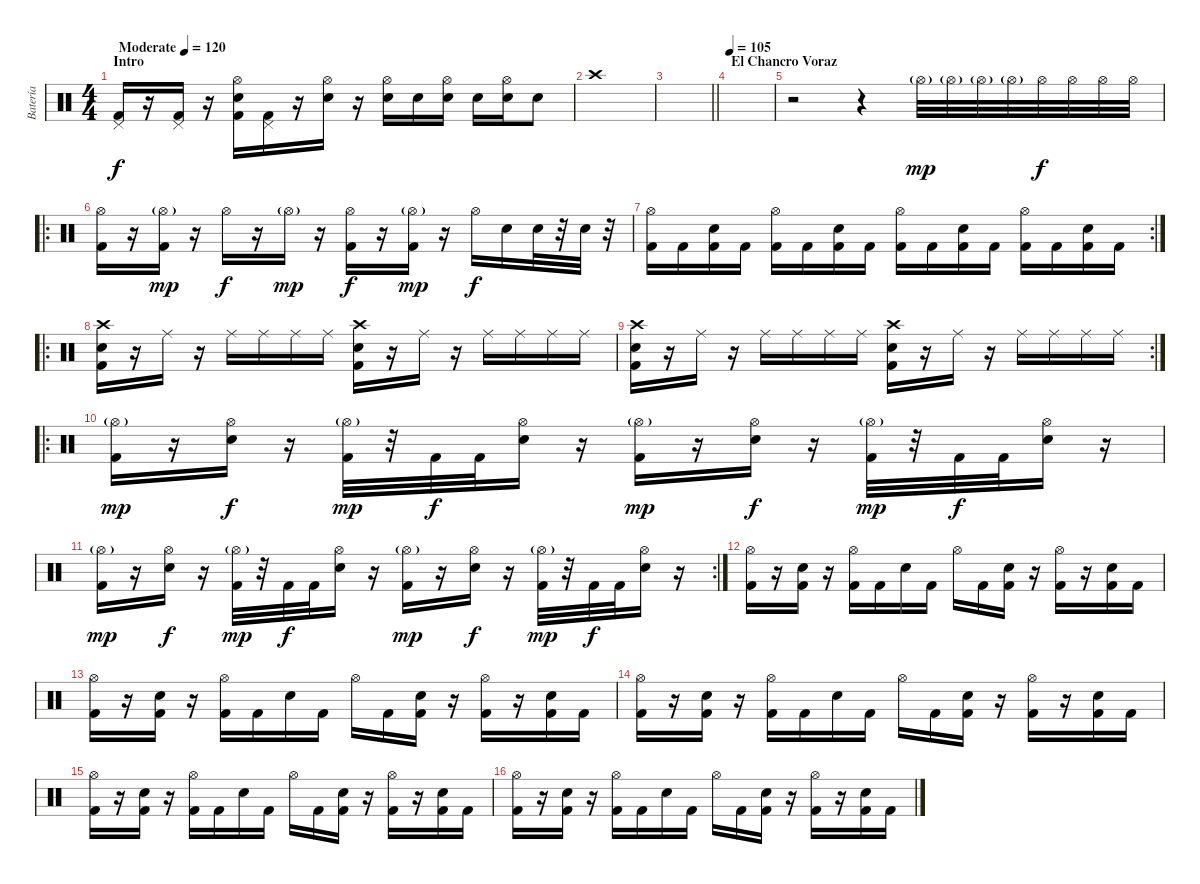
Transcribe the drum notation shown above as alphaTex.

\track ("Batería" "Batería") {instrument percussion}
\staff {score}
\articulation defaults
\ts (4 4)
\section ("" "Intro")
\tempo (120 "Moderate")
\clef neutral
\ks c
("Pedal Hi-Hat (hit)" "Kick (hit) 2").16{dy f} r.16 ("Pedal Hi-Hat (hit)" "Kick (hit) 2").16 r.16 ("Hi-Hat (open)" "Snare (hit) 2" "Kick (hit) 2").16 ("Pedal Hi-Hat (hit)" "Kick (hit) 2").16 r.16 ("Hi-Hat (open)" "Snare (hit) 2").16 r.16 ("Hi-Hat (open)" "Snare (hit) 2").16 "Snare (hit) 2".16 ("Hi-Hat (open)" "Snare (hit) 2").16 "Snare (hit) 2".16 ("Hi-Hat (open)" "Snare (hit) 2").16 "Snare (hit) 2".8 |
"Crash high (hit)".1 |
\barLineRight lightlight
|
\section ("" "El Chancro Voraz")
\tempo 105
|
r.2 r.4 "Hi-Hat (open)"{g}.32{dy mp} "Hi-Hat (open)"{g}.32 "Hi-Hat (open)"{g}.32 "Hi-Hat (open)"{g}.32 "Hi-Hat (open)".32{dy f} "Hi-Hat (open)".32 "Hi-Hat (open)".32 "Hi-Hat (open)".32 |
\ro
("Hi-Hat (open)" "Kick (hit) 2").16 r.16 ("Hi-Hat (open)"{g} "Kick (hit) 2").16{dy mp} r.16 "Hi-Hat (open)".16{dy f} r.16 "Hi-Hat (open)"{g}.16{dy mp} r.16 ("Hi-Hat (open)" "Kick (hit) 2").16{dy f} r.16 ("Hi-Hat (open)"{g} "Kick (hit) 2").16{dy mp} r.16 "Hi-Hat (open)".16{dy f} "Snare (hit) 2".16 "Snare (hit) 2".32 r.32 "Snare (hit) 2".32 r.32 |
\rc 2
("Hi-Hat (open)" "Kick (hit) 2").16 "Kick (hit) 2".16 ("Snare (hit) 2" "Kick (hit) 2").16 "Kick (hit) 2".16 ("Hi-Hat (open)" "Kick (hit) 2").16 "Kick (hit) 2".16 ("Snare (hit) 2" "Kick (hit) 2").16 "Kick (hit) 2".16 ("Hi-Hat (open)" "Kick (hit) 2").16 "Kick (hit) 2".16 ("Snare (hit) 2" "Kick (hit) 2").16 "Kick (hit) 2".16 ("Hi-Hat (open)" "Kick (hit) 2").16 "Kick (hit) 2".16 ("Snare (hit) 2" "Kick (hit) 2").16 "Kick (hit) 2".16 |
\ro
("Crash high (hit)" "Snare (hit) 2" "Kick (hit) 2").16 r.16 "Ride (middle)".16 r.16 "Ride (middle)".16 "Ride (middle)".16 "Ride (middle)".16 "Ride (middle)".16 ("Crash high (hit)" "Snare (hit) 2" "Kick (hit) 2").16 r.16 "Ride (middle)".16 r.16 "Ride (middle)".16 "Ride (middle)".16 "Ride (middle)".16 "Ride (middle)".16 |
\rc 2
("Crash high (hit)" "Snare (hit) 2" "Kick (hit) 2").16 r.16 "Ride (middle)".16 r.16 "Ride (middle)".16 "Ride (middle)".16 "Ride (middle)".16 "Ride (middle)".16 ("Crash high (hit)" "Snare (hit) 2" "Kick (hit) 2").16 r.16 "Ride (middle)".16 r.16 "Ride (middle)".16 "Ride (middle)".16 "Ride (middle)".16 "Ride (middle)".16 |
\ro
("Hi-Hat (open)"{g} "Kick (hit) 2").16{dy mp} r.16 ("Hi-Hat (open)" "Snare (hit) 2").16{dy f} r.16 ("Hi-Hat (open)"{g} "Kick (hit) 2").32{dy mp} r.32 "Kick (hit) 2".32{dy f} "Kick (hit) 2".32 ("Hi-Hat (open)" "Snare (hit) 2").16 r.16 ("Hi-Hat (open)"{g} "Kick (hit) 2").16{dy mp} r.16 ("Hi-Hat (open)" "Snare (hit) 2").16{dy f} r.16 ("Hi-Hat (open)"{g} "Kick (hit) 2").32{dy mp} r.32 "Kick (hit) 2".32{dy f} "Kick (hit) 2".32 ("Hi-Hat (open)" "Snare (hit) 2").16 r.16 |
\rc 2
("Hi-Hat (open)"{g} "Kick (hit) 2").16{dy mp} r.16 ("Hi-Hat (open)" "Snare (hit) 2").16{dy f} r.16 ("Hi-Hat (open)"{g} "Kick (hit) 2").32{dy mp} r.32 "Kick (hit) 2".32{dy f} "Kick (hit) 2".32 ("Hi-Hat (open)" "Snare (hit) 2").16 r.16 ("Hi-Hat (open)"{g} "Kick (hit) 2").16{dy mp} r.16 ("Hi-Hat (open)" "Snare (hit) 2").16{dy f} r.16 ("Hi-Hat (open)"{g} "Kick (hit) 2").32{dy mp} r.32 "Kick (hit) 2".32{dy f} "Kick (hit) 2".32 ("Hi-Hat (open)" "Snare (hit) 2").16 r.16 |
("Hi-Hat (open)" "Kick (hit) 2").16 r.16 ("Snare (hit) 2" "Kick (hit) 2").16 r.16 ("Hi-Hat (open)" "Kick (hit) 2").16 "Kick (hit) 2".16 "Snare (hit) 2".16 "Kick (hit) 2".16 "Hi-Hat (open)".16 "Kick (hit) 2".16 ("Snare (hit) 2" "Kick (hit) 2").16 r.16 ("Hi-Hat (open)" "Kick (hit) 2").16 r.16 ("Snare (hit) 2" "Kick (hit) 2").16 "Kick (hit) 2".16 |
("Hi-Hat (open)" "Kick (hit) 2").16 r.16 ("Snare (hit) 2" "Kick (hit) 2").16 r.16 ("Hi-Hat (open)" "Kick (hit) 2").16 "Kick (hit) 2".16 "Snare (hit) 2".16 "Kick (hit) 2".16 "Hi-Hat (open)".16 "Kick (hit) 2".16 ("Snare (hit) 2" "Kick (hit) 2").16 r.16 ("Hi-Hat (open)" "Kick (hit) 2").16 r.16 ("Snare (hit) 2" "Kick (hit) 2").16 "Kick (hit) 2".16 |
("Hi-Hat (open)" "Kick (hit) 2").16 r.16 ("Snare (hit) 2" "Kick (hit) 2").16 r.16 ("Hi-Hat (open)" "Kick (hit) 2").16 "Kick (hit) 2".16 "Snare (hit) 2".16 "Kick (hit) 2".16 "Hi-Hat (open)".16 "Kick (hit) 2".16 ("Snare (hit) 2" "Kick (hit) 2").16 r.16 ("Hi-Hat (open)" "Kick (hit) 2").16 r.16 ("Snare (hit) 2" "Kick (hit) 2").16 "Kick (hit) 2".16 |
("Hi-Hat (open)" "Kick (hit) 2").16 r.16 ("Snare (hit) 2" "Kick (hit) 2").16 r.16 ("Hi-Hat (open)" "Kick (hit) 2").16 "Kick (hit) 2".16 "Snare (hit) 2".16 "Kick (hit) 2".16 "Hi-Hat (open)".16 "Kick (hit) 2".16 ("Snare (hit) 2" "Kick (hit) 2").16 r.16 ("Hi-Hat (open)" "Kick (hit) 2").16 r.16 ("Snare (hit) 2" "Kick (hit) 2").16 "Kick (hit) 2".16 |
("Hi-Hat (open)" "Kick (hit) 2").16 r.16 ("Snare (hit) 2" "Kick (hit) 2").16 r.16 ("Hi-Hat (open)" "Kick (hit) 2").16 "Kick (hit) 2".16 "Snare (hit) 2".16 "Kick (hit) 2".16 "Hi-Hat (open)".16 "Kick (hit) 2".16 ("Snare (hit) 2" "Kick (hit) 2").16 r.16 ("Hi-Hat (open)" "Kick (hit) 2").16 r.16 ("Snare (hit) 2" "Kick (hit) 2").16 "Kick (hit) 2".16
